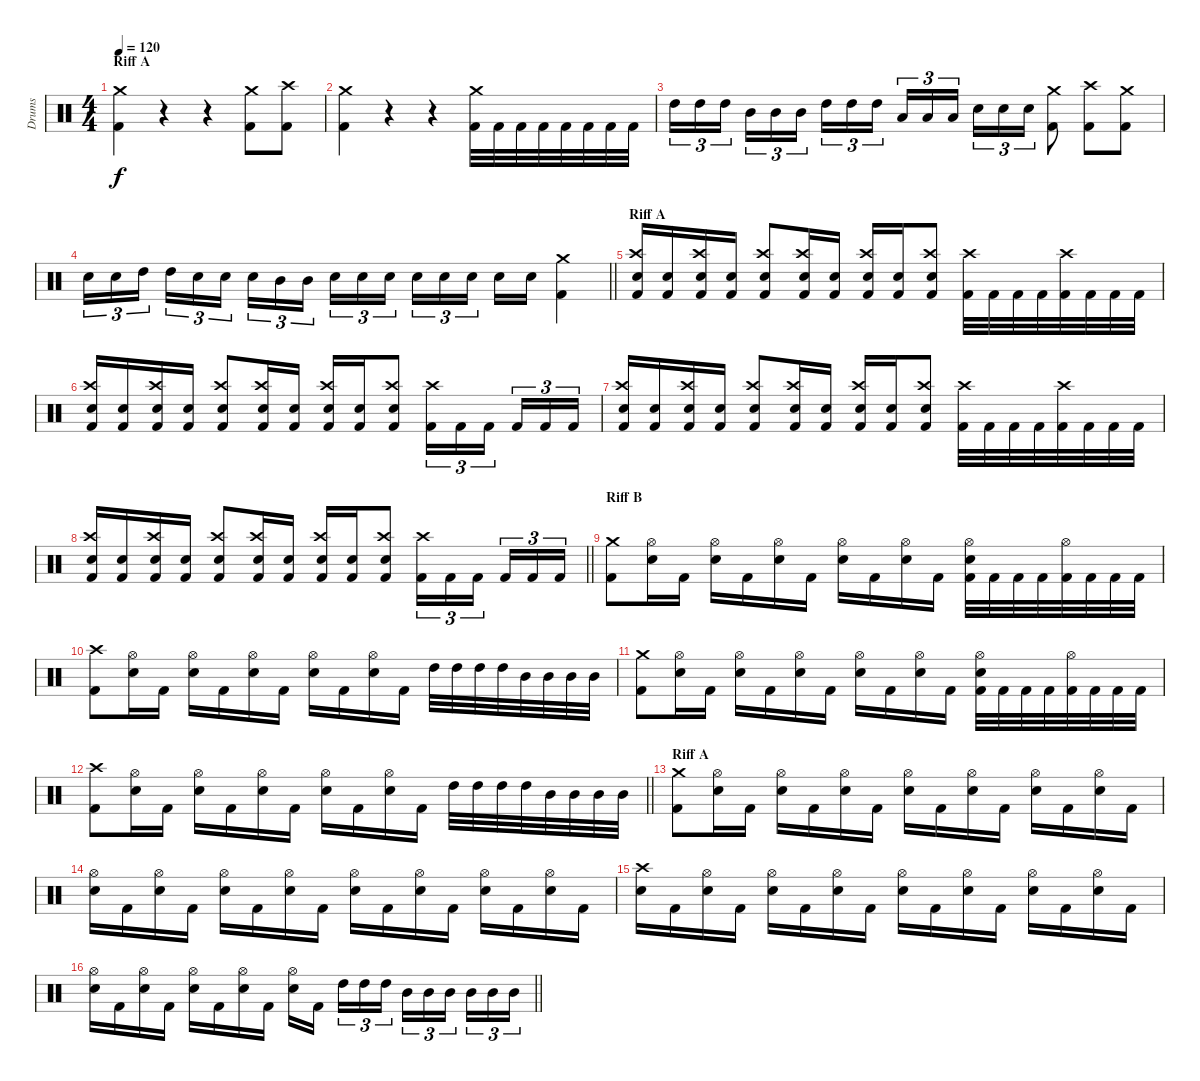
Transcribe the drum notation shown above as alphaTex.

\track ("Drums" "Drums") {instrument percussion}
\staff {score}
\articulation defaults
\ts (4 4)
\section ("" "Riff A")
\tempo 120
\clef neutral
\ks c
("Crash medium (hit)" "Kick (hit) 2").4{dy f} r.4 r.4 ("Crash medium (hit)" "Kick (hit) 2").8 ("Crash high (hit)" "Kick (hit) 2").8 |
("Crash medium (hit)" "Kick (hit) 2").4 r.4 r.4 ("Crash medium (hit)" "Kick (hit) 2").32 "Kick (hit) 2".32 "Kick (hit) 2".32 "Kick (hit) 2".32 "Kick (hit) 2".32 "Kick (hit) 2".32 "Kick (hit) 2".32 "Kick (hit) 2".32 |
"High Tom (hit)".16{tu (3 2)} "High Tom (hit)".16{tu (3 2)} "High Tom (hit)".16{tu (3 2)} "Mid Tom (hit)".16{tu (3 2)} "Mid Tom (hit)".16{tu (3 2)} "Mid Tom (hit)".16{tu (3 2)} "High Tom (hit)".16{tu (3 2)} "High Tom (hit)".16{tu (3 2)} "High Tom (hit)".16{tu (3 2)} "Low Tom (hit)".16{tu (3 2)} "Low Tom (hit)".16{tu (3 2)} "Low Tom (hit)".16{tu (3 2)} "Electric Snare (hit)".16{tu (3 2)} "Electric Snare (hit)".16{tu (3 2)} "Electric Snare (hit)".16{tu (3 2)} ("Crash medium (hit)" "Kick (hit) 2").8 ("Crash high (hit)" "Kick (hit) 2").8 ("Crash medium (hit)" "Kick (hit) 2").8 |
\barLineRight lightlight "Electric Snare (hit)".16{tu (3 2)} "Electric Snare (hit)".16{tu (3 2)} "High Tom (hit)".16{tu (3 2)} "High Tom (hit)".16{tu (3 2)} "Electric Snare (hit)".16{tu (3 2)} "Electric Snare (hit)".16{tu (3 2)} "Electric Snare (hit)".16{tu (3 2)} "Mid Tom (hit)".16{tu (3 2)} "Mid Tom (hit)".16{tu (3 2)} "Electric Snare (hit)".16{tu (3 2)} "Electric Snare (hit)".16{tu (3 2)} "Electric Snare (hit)".16{tu (3 2)} "Electric Snare (hit)".16{tu (3 2)} "Electric Snare (hit)".16{tu (3 2)} "Electric Snare (hit)".16{tu (3 2)} "Electric Snare (hit)".16 "Electric Snare (hit)".16
("Crash medium (hit)" "Kick (hit) 2").4 |
\section ("" "Riff A")
("Crash high (hit)" "Electric Snare (hit)" "Kick (hit) 2").16 ("Electric Snare (hit)" "Kick (hit) 2").16 ("Crash high (hit)" "Electric Snare (hit)" "Kick (hit) 2").16 ("Electric Snare (hit)" "Kick (hit) 2").16 ("Crash high (hit)" "Electric Snare (hit)" "Kick (hit) 2").8 ("Crash high (hit)" "Electric Snare (hit)" "Kick (hit) 2").16 ("Electric Snare (hit)" "Kick (hit) 2").16 ("Crash high (hit)" "Electric Snare (hit)" "Kick (hit) 2").16 ("Electric Snare (hit)" "Kick (hit) 2").16 ("Crash high (hit)" "Electric Snare (hit)" "Kick (hit) 2").8 ("Crash high (hit)" "Kick (hit) 2").32 "Kick (hit) 2".32 "Kick (hit) 2".32 "Kick (hit) 2".32 ("Crash high (hit)" "Kick (hit) 2").32 "Kick (hit) 2".32 "Kick (hit) 2".32 "Kick (hit) 2".32 |
("Crash high (hit)" "Electric Snare (hit)" "Kick (hit) 2").16 ("Electric Snare (hit)" "Kick (hit) 2").16 ("Crash high (hit)" "Electric Snare (hit)" "Kick (hit) 2").16 ("Electric Snare (hit)" "Kick (hit) 2").16 ("Crash high (hit)" "Electric Snare (hit)" "Kick (hit) 2").8 ("Crash high (hit)" "Electric Snare (hit)" "Kick (hit) 2").16 ("Electric Snare (hit)" "Kick (hit) 2").16 ("Crash high (hit)" "Electric Snare (hit)" "Kick (hit) 2").16 ("Electric Snare (hit)" "Kick (hit) 2").16 ("Crash high (hit)" "Electric Snare (hit)" "Kick (hit) 2").8 ("Crash high (hit)" "Kick (hit) 2").16{tu (3 2)} "Kick (hit) 2".16{tu (3 2)} "Kick (hit) 2".16{tu (3 2)} "Kick (hit) 2".16{tu (3 2)} "Kick (hit) 2".16{tu (3 2)} "Kick (hit) 2".16{tu (3 2)} |
("Crash high (hit)" "Electric Snare (hit)" "Kick (hit) 2").16 ("Electric Snare (hit)" "Kick (hit) 2").16 ("Crash high (hit)" "Electric Snare (hit)" "Kick (hit) 2").16 ("Electric Snare (hit)" "Kick (hit) 2").16 ("Crash high (hit)" "Electric Snare (hit)" "Kick (hit) 2").8 ("Crash high (hit)" "Electric Snare (hit)" "Kick (hit) 2").16 ("Electric Snare (hit)" "Kick (hit) 2").16 ("Crash high (hit)" "Electric Snare (hit)" "Kick (hit) 2").16 ("Electric Snare (hit)" "Kick (hit) 2").16 ("Crash high (hit)" "Electric Snare (hit)" "Kick (hit) 2").8 ("Crash high (hit)" "Kick (hit) 2").32 "Kick (hit) 2".32 "Kick (hit) 2".32 "Kick (hit) 2".32 ("Crash high (hit)" "Kick (hit) 2").32 "Kick (hit) 2".32 "Kick (hit) 2".32 "Kick (hit) 2".32 |
\barLineRight lightlight
("Crash high (hit)" "Electric Snare (hit)" "Kick (hit) 2").16 ("Electric Snare (hit)" "Kick (hit) 2").16 ("Crash high (hit)" "Electric Snare (hit)" "Kick (hit) 2").16 ("Electric Snare (hit)" "Kick (hit) 2").16 ("Crash high (hit)" "Electric Snare (hit)" "Kick (hit) 2").8 ("Crash high (hit)" "Electric Snare (hit)" "Kick (hit) 2").16 ("Electric Snare (hit)" "Kick (hit) 2").16 ("Crash high (hit)" "Electric Snare (hit)" "Kick (hit) 2").16 ("Electric Snare (hit)" "Kick (hit) 2").16 ("Crash high (hit)" "Electric Snare (hit)" "Kick (hit) 2").8 ("Crash high (hit)" "Kick (hit) 2").16{tu (3 2)} "Kick (hit) 2".16{tu (3 2)} "Kick (hit) 2".16{tu (3 2)} "Kick (hit) 2".16{tu (3 2)} "Kick (hit) 2".16{tu (3 2)} "Kick (hit) 2".16{tu (3 2)} |
\section ("" "Riff B")
("Crash medium (hit)" "Kick (hit) 2").8 ("Hi-Hat (open)" "Electric Snare (hit)").16 "Kick (hit) 2".16 ("Hi-Hat (open)" "Electric Snare (hit)").16 "Kick (hit) 2".16 ("Hi-Hat (open)" "Electric Snare (hit)").16 "Kick (hit) 2".16 ("Hi-Hat (open)" "Electric Snare (hit)").16 "Kick (hit) 2".16 ("Hi-Hat (open)" "Electric Snare (hit)").16 "Kick (hit) 2".16 ("Hi-Hat (open)" "Electric Snare (hit)" "Kick (hit) 2").32 "Kick (hit) 2".32 "Kick (hit) 2".32 "Kick (hit) 2".32 ("Hi-Hat (open)" "Kick (hit) 2").32 "Kick (hit) 2".32 "Kick (hit) 2".32 "Kick (hit) 2".32 |
("Crash high (hit)" "Kick (hit) 2").8 ("Hi-Hat (open)" "Electric Snare (hit)").16 "Kick (hit) 2".16 ("Hi-Hat (open)" "Electric Snare (hit)").16 "Kick (hit) 2".16 ("Hi-Hat (open)" "Electric Snare (hit)").16 "Kick (hit) 2".16 ("Hi-Hat (open)" "Electric Snare (hit)").16 "Kick (hit) 2".16 ("Hi-Hat (open)" "Electric Snare (hit)").16 "Kick (hit) 2".16 "High Tom (hit)".32 "High Tom (hit)".32 "High Tom (hit)".32 "High Tom (hit)".32 "Mid Tom (hit)".32 "Mid Tom (hit)".32 "Mid Tom (hit)".32 "Mid Tom (hit)".32 |
("Crash medium (hit)" "Kick (hit) 2").8 ("Hi-Hat (open)" "Electric Snare (hit)").16 "Kick (hit) 2".16 ("Hi-Hat (open)" "Electric Snare (hit)").16 "Kick (hit) 2".16 ("Hi-Hat (open)" "Electric Snare (hit)").16 "Kick (hit) 2".16 ("Hi-Hat (open)" "Electric Snare (hit)").16 "Kick (hit) 2".16 ("Hi-Hat (open)" "Electric Snare (hit)").16 "Kick (hit) 2".16 ("Hi-Hat (open)" "Electric Snare (hit)" "Kick (hit) 2").32 "Kick (hit) 2".32 "Kick (hit) 2".32 "Kick (hit) 2".32 ("Hi-Hat (open)" "Kick (hit) 2").32 "Kick (hit) 2".32 "Kick (hit) 2".32 "Kick (hit) 2".32 |
\barLineRight lightlight
("Crash high (hit)" "Kick (hit) 2").8 ("Hi-Hat (open)" "Electric Snare (hit)").16 "Kick (hit) 2".16 ("Hi-Hat (open)" "Electric Snare (hit)").16 "Kick (hit) 2".16 ("Hi-Hat (open)" "Electric Snare (hit)").16 "Kick (hit) 2".16 ("Hi-Hat (open)" "Electric Snare (hit)").16 "Kick (hit) 2".16 ("Hi-Hat (open)" "Electric Snare (hit)").16 "Kick (hit) 2".16 "High Tom (hit)".32 "High Tom (hit)".32 "High Tom (hit)".32 "High Tom (hit)".32 "Mid Tom (hit)".32 "Mid Tom (hit)".32 "Mid Tom (hit)".32 "Mid Tom (hit)".32 |
\section ("" "Riff A")
("Crash medium (hit)" "Kick (hit) 2").8 ("Hi-Hat (open)" "Electric Snare (hit)").16 "Kick (hit) 2".16 ("Hi-Hat (open)" "Electric Snare (hit)").16 "Kick (hit) 2".16 ("Hi-Hat (open)" "Electric Snare (hit)").16 "Kick (hit) 2".16 ("Hi-Hat (open)" "Electric Snare (hit)").16 "Kick (hit) 2".16 ("Hi-Hat (open)" "Electric Snare (hit)").16 "Kick (hit) 2".16 ("Hi-Hat (open)" "Electric Snare (hit)").16 "Kick (hit) 2".16 ("Hi-Hat (open)" "Electric Snare (hit)").16 "Kick (hit) 2".16 |
("Hi-Hat (open)" "Electric Snare (hit)").16 "Kick (hit) 2".16 ("Hi-Hat (open)" "Electric Snare (hit)").16 "Kick (hit) 2".16 ("Hi-Hat (open)" "Electric Snare (hit)").16 "Kick (hit) 2".16 ("Hi-Hat (open)" "Electric Snare (hit)").16 "Kick (hit) 2".16 ("Hi-Hat (open)" "Electric Snare (hit)").16 "Kick (hit) 2".16 ("Hi-Hat (open)" "Electric Snare (hit)").16 "Kick (hit) 2".16 ("Hi-Hat (open)" "Electric Snare (hit)").16 "Kick (hit) 2".16 ("Hi-Hat (open)" "Electric Snare (hit)").16 "Kick (hit) 2".16 |
("Crash high (hit)" "Electric Snare (hit)").16 "Kick (hit) 2".16 ("Hi-Hat (open)" "Electric Snare (hit)").16 "Kick (hit) 2".16 ("Hi-Hat (open)" "Electric Snare (hit)").16 "Kick (hit) 2".16 ("Hi-Hat (open)" "Electric Snare (hit)").16 "Kick (hit) 2".16 ("Hi-Hat (open)" "Electric Snare (hit)").16 "Kick (hit) 2".16 ("Hi-Hat (open)" "Electric Snare (hit)").16 "Kick (hit) 2".16 ("Hi-Hat (open)" "Electric Snare (hit)").16 "Kick (hit) 2".16 ("Hi-Hat (open)" "Electric Snare (hit)").16 "Kick (hit) 2".16 |
\barLineRight lightlight
("Hi-Hat (open)" "Electric Snare (hit)").16 "Kick (hit) 2".16 ("Hi-Hat (open)" "Electric Snare (hit)").16 "Kick (hit) 2".16 ("Hi-Hat (open)" "Electric Snare (hit)").16 "Kick (hit) 2".16 ("Hi-Hat (open)" "Electric Snare (hit)").16 "Kick (hit) 2".16 ("Hi-Hat (open)" "Electric Snare (hit)").16 "Kick (hit) 2".16 "High Tom (hit)".16{tu (3 2)} "High Tom (hit)".16{tu (3 2)} "High Tom (hit)".16{tu (3 2)} "Mid Tom (hit)".16{tu (3 2)} "Mid Tom (hit)".16{tu (3 2)} "Mid Tom (hit)".16{tu (3 2)} "Mid Tom (hit)".16{tu (3 2)} "Mid Tom (hit)".16{tu (3 2)} "Mid Tom (hit)".16{tu (3 2)}
